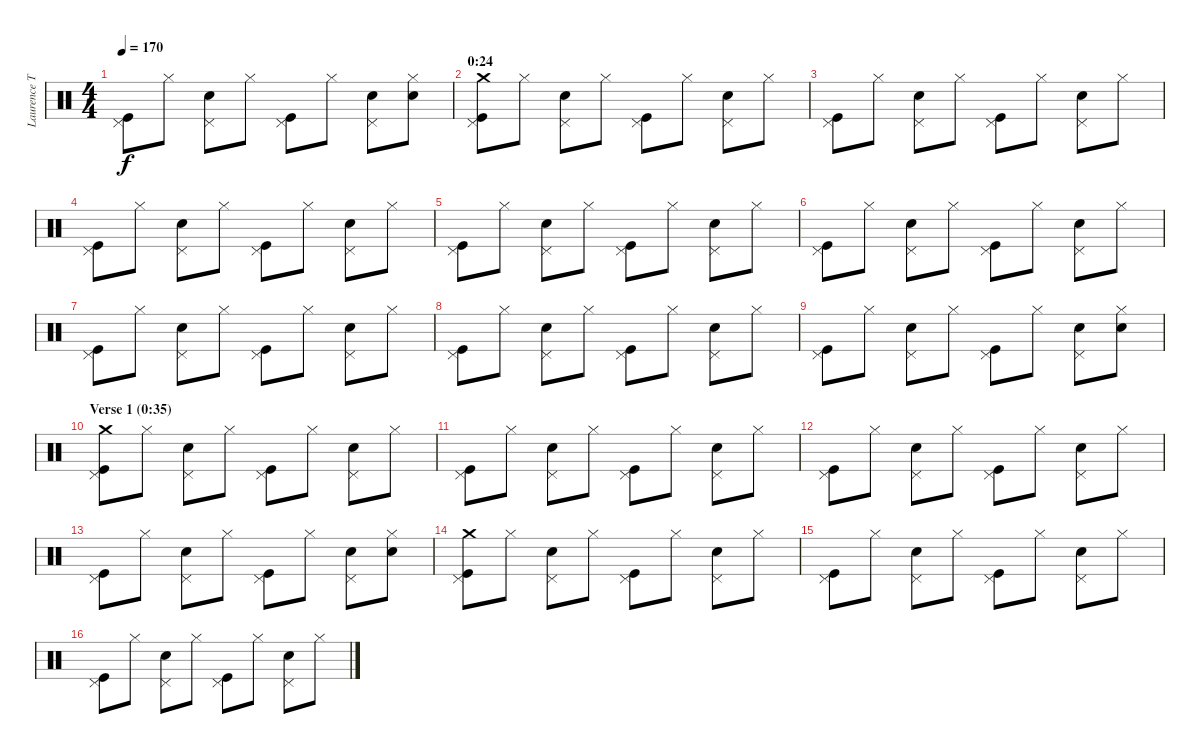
\track ("Laurence Tolhurst (drums)" "Laurence T") {instrument percussion}
\staff {score}
\articulation defaults
\ts (4 4)
\tempo 170
\clef neutral
\ks c
("Pedal Hi-Hat (hit)" "Kick (hit)").8{dy f} "Hi-Hat (closed)".8 ("Pedal Hi-Hat (hit)" "Snare (hit) 2").8 "Hi-Hat (closed)".8 ("Pedal Hi-Hat (hit)" "Kick (hit)").8 "Hi-Hat (closed)".8 ("Pedal Hi-Hat (hit)" "Snare (hit) 2").8 ("Hi-Hat (closed)" "Snare (hit) 2").8 |
\section ("" "0:24")
("Crash medium (hit)" "Pedal Hi-Hat (hit)" "Kick (hit)").8 "Hi-Hat (closed)".8 ("Pedal Hi-Hat (hit)" "Snare (hit) 2").8 "Hi-Hat (closed)".8 ("Pedal Hi-Hat (hit)" "Kick (hit)").8 "Hi-Hat (closed)".8 ("Pedal Hi-Hat (hit)" "Snare (hit) 2").8 "Hi-Hat (closed)".8 |
("Pedal Hi-Hat (hit)" "Kick (hit)").8 "Hi-Hat (closed)".8 ("Pedal Hi-Hat (hit)" "Snare (hit) 2").8 "Hi-Hat (closed)".8 ("Pedal Hi-Hat (hit)" "Kick (hit)").8 "Hi-Hat (closed)".8 ("Pedal Hi-Hat (hit)" "Snare (hit) 2").8 "Hi-Hat (closed)".8 |
("Pedal Hi-Hat (hit)" "Kick (hit)").8 "Hi-Hat (closed)".8 ("Pedal Hi-Hat (hit)" "Snare (hit) 2").8 "Hi-Hat (closed)".8 ("Pedal Hi-Hat (hit)" "Kick (hit)").8 "Hi-Hat (closed)".8 ("Pedal Hi-Hat (hit)" "Snare (hit) 2").8 "Hi-Hat (closed)".8 |
("Pedal Hi-Hat (hit)" "Kick (hit)").8 "Hi-Hat (closed)".8 ("Pedal Hi-Hat (hit)" "Snare (hit) 2").8 "Hi-Hat (closed)".8 ("Pedal Hi-Hat (hit)" "Kick (hit)").8 "Hi-Hat (closed)".8 ("Pedal Hi-Hat (hit)" "Snare (hit) 2").8 "Hi-Hat (closed)".8 |
("Pedal Hi-Hat (hit)" "Kick (hit)").8 "Hi-Hat (closed)".8 ("Pedal Hi-Hat (hit)" "Snare (hit) 2").8 "Hi-Hat (closed)".8 ("Pedal Hi-Hat (hit)" "Kick (hit)").8 "Hi-Hat (closed)".8 ("Pedal Hi-Hat (hit)" "Snare (hit) 2").8 "Hi-Hat (closed)".8 |
("Pedal Hi-Hat (hit)" "Kick (hit)").8 "Hi-Hat (closed)".8 ("Pedal Hi-Hat (hit)" "Snare (hit) 2").8 "Hi-Hat (closed)".8 ("Pedal Hi-Hat (hit)" "Kick (hit)").8 "Hi-Hat (closed)".8 ("Pedal Hi-Hat (hit)" "Snare (hit) 2").8 "Hi-Hat (closed)".8 |
("Pedal Hi-Hat (hit)" "Kick (hit)").8 "Hi-Hat (closed)".8 ("Pedal Hi-Hat (hit)" "Snare (hit) 2").8 "Hi-Hat (closed)".8 ("Pedal Hi-Hat (hit)" "Kick (hit)").8 "Hi-Hat (closed)".8 ("Pedal Hi-Hat (hit)" "Snare (hit) 2").8 "Hi-Hat (closed)".8 |
("Pedal Hi-Hat (hit)" "Kick (hit)").8 "Hi-Hat (closed)".8 ("Pedal Hi-Hat (hit)" "Snare (hit) 2").8 "Hi-Hat (closed)".8 ("Pedal Hi-Hat (hit)" "Kick (hit)").8 "Hi-Hat (closed)".8 ("Pedal Hi-Hat (hit)" "Snare (hit) 2").8 ("Hi-Hat (closed)" "Snare (hit) 2").8 |
\section ("" "Verse 1 (0:35)")
("Crash medium (hit)" "Pedal Hi-Hat (hit)" "Kick (hit)").8 "Hi-Hat (closed)".8 ("Pedal Hi-Hat (hit)" "Snare (hit) 2").8 "Hi-Hat (closed)".8 ("Pedal Hi-Hat (hit)" "Kick (hit)").8 "Hi-Hat (closed)".8 ("Pedal Hi-Hat (hit)" "Snare (hit) 2").8 "Hi-Hat (closed)".8 |
("Pedal Hi-Hat (hit)" "Kick (hit)").8 "Hi-Hat (closed)".8 ("Pedal Hi-Hat (hit)" "Snare (hit) 2").8 "Hi-Hat (closed)".8 ("Pedal Hi-Hat (hit)" "Kick (hit)").8 "Hi-Hat (closed)".8 ("Pedal Hi-Hat (hit)" "Snare (hit) 2").8 "Hi-Hat (closed)".8 |
("Pedal Hi-Hat (hit)" "Kick (hit)").8 "Hi-Hat (closed)".8 ("Pedal Hi-Hat (hit)" "Snare (hit) 2").8 "Hi-Hat (closed)".8 ("Pedal Hi-Hat (hit)" "Kick (hit)").8 "Hi-Hat (closed)".8 ("Pedal Hi-Hat (hit)" "Snare (hit) 2").8 "Hi-Hat (closed)".8 |
("Pedal Hi-Hat (hit)" "Kick (hit)").8 "Hi-Hat (closed)".8 ("Pedal Hi-Hat (hit)" "Snare (hit) 2").8 "Hi-Hat (closed)".8 ("Pedal Hi-Hat (hit)" "Kick (hit)").8 "Hi-Hat (closed)".8 ("Pedal Hi-Hat (hit)" "Snare (hit) 2").8 ("Hi-Hat (closed)" "Snare (hit) 2").8 |
("Crash medium (hit)" "Pedal Hi-Hat (hit)" "Kick (hit)").8 "Hi-Hat (closed)".8 ("Pedal Hi-Hat (hit)" "Snare (hit) 2").8 "Hi-Hat (closed)".8 ("Pedal Hi-Hat (hit)" "Kick (hit)").8 "Hi-Hat (closed)".8 ("Pedal Hi-Hat (hit)" "Snare (hit) 2").8 "Hi-Hat (closed)".8 |
("Pedal Hi-Hat (hit)" "Kick (hit)").8 "Hi-Hat (closed)".8 ("Pedal Hi-Hat (hit)" "Snare (hit) 2").8 "Hi-Hat (closed)".8 ("Pedal Hi-Hat (hit)" "Kick (hit)").8 "Hi-Hat (closed)".8 ("Pedal Hi-Hat (hit)" "Snare (hit) 2").8 "Hi-Hat (closed)".8 |
("Pedal Hi-Hat (hit)" "Kick (hit)").8 "Hi-Hat (closed)".8 ("Pedal Hi-Hat (hit)" "Snare (hit) 2").8 "Hi-Hat (closed)".8 ("Pedal Hi-Hat (hit)" "Kick (hit)").8 "Hi-Hat (closed)".8 ("Pedal Hi-Hat (hit)" "Snare (hit) 2").8 "Hi-Hat (closed)".8
